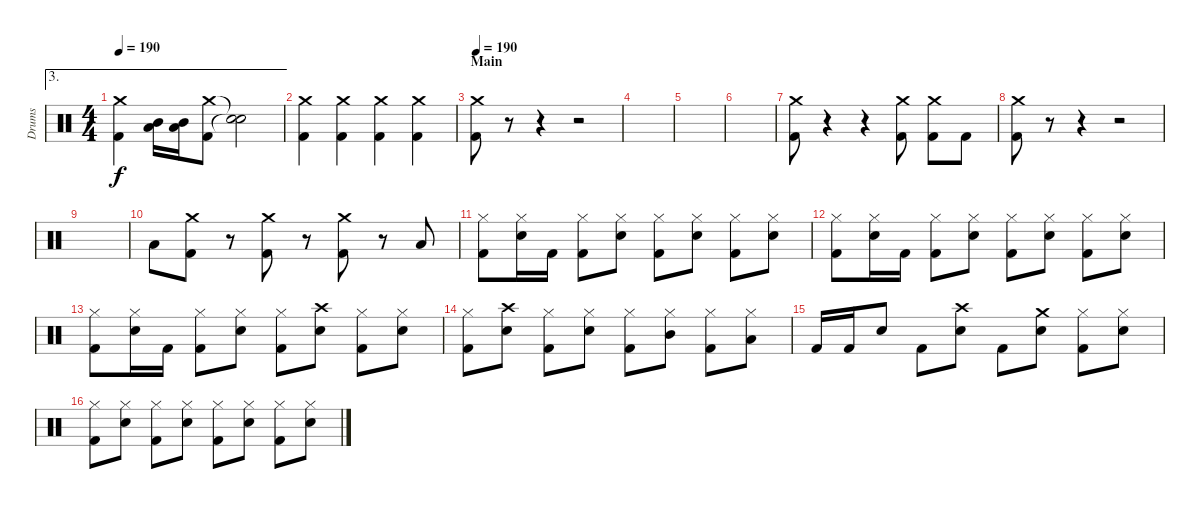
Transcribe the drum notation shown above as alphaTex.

\track ("Drums" "Drums") {instrument percussion}
\staff {score}
\articulation defaults
\ae 3
\ts (4 4)
\tempo 190
\clef neutral
\ks c
("Crash medium (hit)" "Kick (hit) 2").4{dy f} ("Low Tom (hit)" "Mid Tom (hit)").16{bd 30} ("Low Tom (hit)" "Mid Tom (hit)").16{bd 30} ("Crash medium (hit)" "Kick (hit) 2").8 ("Snare (hit)"{t} "Snare (hit)"{t}).2 |
("Crash medium (hit)" "Kick (hit) 2").4 ("Crash medium (hit)" "Kick (hit) 2").4 ("Crash medium (hit)" "Kick (hit) 2").4 ("Crash medium (hit)" "Kick (hit) 2").4 |
\section ("" "Main")
\tempo 190
("Crash medium (hit)" "Kick (hit) 2").8 r.8 r.4 r.2 |
|
|
|
("Kick (hit) 2" "Crash medium (hit)").8 r.4 r.4 ("Kick (hit) 2" "Crash medium (hit)").8 ("Kick (hit) 2" "Crash medium (hit)").8 "Kick (hit) 2".8 |
("Kick (hit) 2" "Crash medium (hit)").8 r.8 r.4 r.2 |
|
"Low Tom (hit)".8 ("Kick (hit) 2" "Crash medium (hit)").8 r.8 ("Kick (hit) 2" "Crash medium (hit)").8 r.8 ("Kick (hit) 2" "Crash medium (hit)").8 r.8 "Low Tom (hit)".8 |
("Kick (hit) 2" "Hi-Hat (closed)").8 ("Snare (hit) 2" "Hi-Hat (closed)").16 "Kick (hit) 2".16 ("Kick (hit) 2" "Hi-Hat (closed)").8 ("Snare (hit) 2" "Hi-Hat (closed)").8 ("Kick (hit) 2" "Hi-Hat (closed)").8 ("Snare (hit) 2" "Hi-Hat (closed)").8 ("Kick (hit) 2" "Hi-Hat (closed)").8 ("Snare (hit) 2" "Hi-Hat (closed)").8 |
("Kick (hit) 2" "Hi-Hat (closed)").8 ("Snare (hit) 2" "Hi-Hat (closed)").16 "Kick (hit) 2".16 ("Kick (hit) 2" "Hi-Hat (closed)").8 ("Snare (hit) 2" "Hi-Hat (closed)").8 ("Kick (hit) 2" "Hi-Hat (closed)").8 ("Snare (hit) 2" "Hi-Hat (closed)").8 ("Kick (hit) 2" "Hi-Hat (closed)").8 ("Snare (hit) 2" "Hi-Hat (closed)").8 |
("Kick (hit) 2" "Hi-Hat (closed)").8 ("Snare (hit) 2" "Hi-Hat (closed)").16 "Kick (hit) 2".16 ("Kick (hit) 2" "Hi-Hat (closed)").8 ("Snare (hit) 2" "Hi-Hat (closed)").8 ("Kick (hit) 2" "Hi-Hat (closed)").8 ("Snare (hit) 2" "Crash high (hit)").8 ("Kick (hit) 2" "Hi-Hat (closed)").8 ("Snare (hit) 2" "Hi-Hat (closed)").8 |
("Kick (hit) 2" "Hi-Hat (closed)").8 ("Snare (hit) 2" "Crash high (hit)").8 ("Kick (hit) 2" "Hi-Hat (closed)").8 ("Snare (hit) 2" "Hi-Hat (closed)").8 ("Kick (hit) 2" "Hi-Hat (closed)").8 ("Hi-Hat (closed)" "Mid Tom (hit)").8 ("Kick (hit) 2" "Hi-Hat (closed)").8 ("Hi-Hat (closed)" "Low Tom (hit)").8 |
"Kick (hit) 2".16 "Kick (hit) 2".16 "Snare (hit) 2".8 "Kick (hit) 2".8 ("Snare (hit) 2" "Crash high (hit)").8 "Kick (hit) 2".8 ("Snare (hit) 2" "Crash medium (hit)").8 ("Kick (hit) 2" "Hi-Hat (closed)").8 ("Snare (hit) 2" "Hi-Hat (closed)").8 |
("Kick (hit) 2" "Hi-Hat (closed)").8 ("Snare (hit) 2" "Hi-Hat (closed)").8 ("Kick (hit) 2" "Hi-Hat (closed)").8 ("Snare (hit) 2" "Hi-Hat (closed)").8 ("Kick (hit) 2" "Hi-Hat (closed)").8 ("Snare (hit) 2" "Hi-Hat (closed)").8 ("Kick (hit) 2" "Hi-Hat (closed)").8 ("Snare (hit) 2" "Hi-Hat (closed)").8
